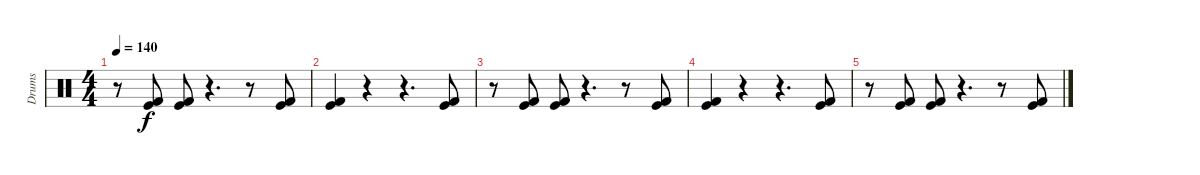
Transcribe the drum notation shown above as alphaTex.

\track ("Drums" "Drums") {instrument percussion}
\staff {score}
\articulation defaults
\ts (4 4)
\tempo 140
\clef neutral
\ks c
r.8{dy f} ("Kick (hit) 2" "Kick (hit)").8 ("Kick (hit) 2" "Kick (hit)").8 r.4{d} r.8 ("Kick (hit) 2" "Kick (hit)").8 |
("Kick (hit) 2" "Kick (hit)").4{volume 0} r.4 r.4{d} ("Kick (hit) 2" "Kick (hit)").8 |
r.8 ("Kick (hit) 2" "Kick (hit)").8 ("Kick (hit) 2" "Kick (hit)").8 r.4{d} r.8 ("Kick (hit) 2" "Kick (hit)").8 |
("Kick (hit) 2" "Kick (hit)").4 r.4 r.4{d} ("Kick (hit) 2" "Kick (hit)").8 |
r.8 ("Kick (hit) 2" "Kick (hit)").8 ("Kick (hit) 2" "Kick (hit)").8 r.4{d} r.8 ("Kick (hit) 2" "Kick (hit)").8
